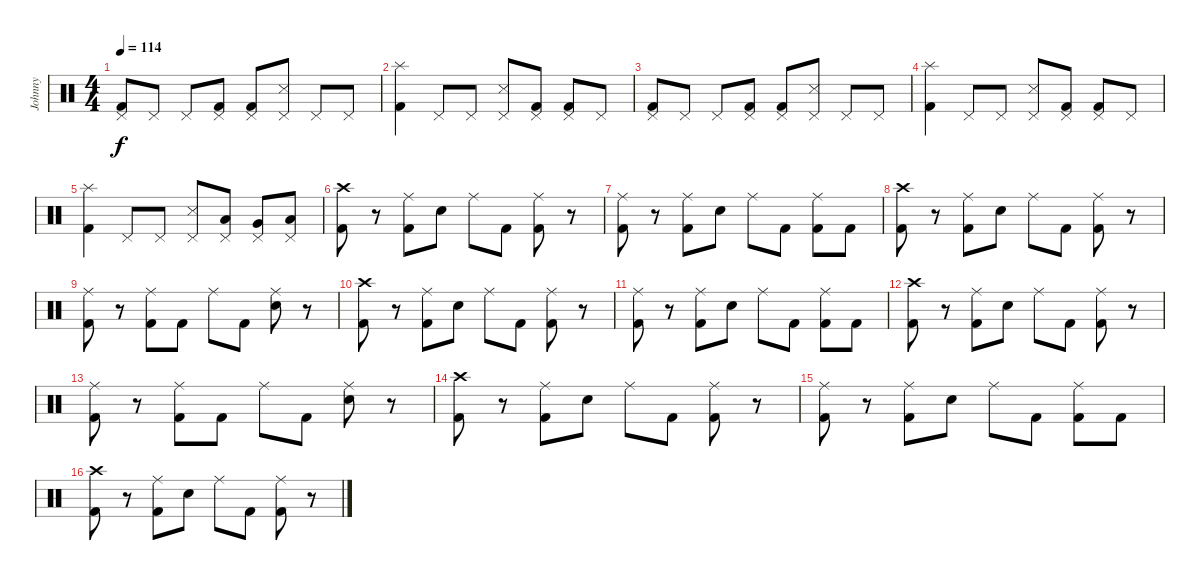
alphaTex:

\track ("Johnny" "Johnny") {instrument percussion}
\staff {score}
\articulation defaults
\ts (4 4)
\tempo 114
\clef neutral
\ks c
("Pedal Hi-Hat (hit)" "Kick (hit) 2").8{dy f} "Pedal Hi-Hat (hit)".8 "Pedal Hi-Hat (hit)".8 ("Pedal Hi-Hat (hit)" "Kick (hit) 2").8 ("Pedal Hi-Hat (hit)" "Kick (hit) 2").8 ("Pedal Hi-Hat (hit)" "Snare (side stick) 3").8 "Pedal Hi-Hat (hit)".8 "Pedal Hi-Hat (hit)".8 |
("Splash (hit)" "Kick (hit) 2").4 "Pedal Hi-Hat (hit)".8 "Pedal Hi-Hat (hit)".8 ("Pedal Hi-Hat (hit)" "Snare (side stick) 3").8 ("Pedal Hi-Hat (hit)" "Kick (hit) 2").8 ("Pedal Hi-Hat (hit)" "Kick (hit) 2").8 "Pedal Hi-Hat (hit)".8 |
("Pedal Hi-Hat (hit)" "Kick (hit) 2").8 "Pedal Hi-Hat (hit)".8 "Pedal Hi-Hat (hit)".8 ("Pedal Hi-Hat (hit)" "Kick (hit) 2").8 ("Pedal Hi-Hat (hit)" "Kick (hit) 2").8 ("Pedal Hi-Hat (hit)" "Snare (side stick) 3").8 "Pedal Hi-Hat (hit)".8 "Pedal Hi-Hat (hit)".8 |
("Splash (hit)" "Kick (hit) 2").4 "Pedal Hi-Hat (hit)".8 "Pedal Hi-Hat (hit)".8 ("Pedal Hi-Hat (hit)" "Snare (side stick) 3").8 ("Pedal Hi-Hat (hit)" "Kick (hit) 2").8 ("Pedal Hi-Hat (hit)" "Kick (hit) 2").8 "Pedal Hi-Hat (hit)".8 |
("Splash (hit)" "Kick (hit) 2").4 "Pedal Hi-Hat (hit)".8 "Pedal Hi-Hat (hit)".8 ("Pedal Hi-Hat (hit)" "Snare (side stick) 3").8 ("Pedal Hi-Hat (hit)" "Low Tom (hit)").8 ("Pedal Hi-Hat (hit)" "Very Low Tom (hit)").8 ("Pedal Hi-Hat (hit)" "Low Floor Tom (hit)").8 |
("Crash high (hit)" "Kick (hit) 2").8 r.8 ("Ride (middle)" "Kick (hit) 2").8 "Electric Snare (hit)".8 "Ride (middle)".8 "Kick (hit) 2".8 ("Ride (middle)" "Kick (hit) 2").8 r.8 |
("Ride (middle)" "Kick (hit) 2").8 r.8 ("Ride (middle)" "Kick (hit) 2").8 "Electric Snare (hit)".8 "Ride (middle)".8 "Kick (hit) 2".8 ("Ride (middle)" "Kick (hit) 2").8 "Kick (hit) 2".8 |
("Crash high (hit)" "Kick (hit) 2").8 r.8 ("Ride (middle)" "Kick (hit) 2").8 "Electric Snare (hit)".8 "Ride (middle)".8 "Kick (hit) 2".8 ("Ride (middle)" "Kick (hit) 2").8 r.8 |
("Ride (middle)" "Kick (hit) 2").8 r.8 ("Ride (middle)" "Kick (hit) 2").8 "Kick (hit) 2".8 "Ride (middle)".8 "Kick (hit) 2".8 ("Ride (middle)" "Electric Snare (hit)").8 r.8 |
("Crash high (hit)" "Kick (hit) 2").8 r.8 ("Ride (middle)" "Kick (hit) 2").8 "Electric Snare (hit)".8 "Ride (middle)".8 "Kick (hit) 2".8 ("Ride (middle)" "Kick (hit) 2").8 r.8 |
("Ride (middle)" "Kick (hit) 2").8 r.8 ("Ride (middle)" "Kick (hit) 2").8 "Electric Snare (hit)".8 "Ride (middle)".8 "Kick (hit) 2".8 ("Ride (middle)" "Kick (hit) 2").8 "Kick (hit) 2".8 |
("Crash high (hit)" "Kick (hit) 2").8 r.8 ("Ride (middle)" "Kick (hit) 2").8 "Electric Snare (hit)".8 "Ride (middle)".8 "Kick (hit) 2".8 ("Ride (middle)" "Kick (hit) 2").8 r.8 |
("Ride (middle)" "Kick (hit) 2").8 r.8 ("Ride (middle)" "Kick (hit) 2").8 "Kick (hit) 2".8 "Ride (middle)".8 "Kick (hit) 2".8 ("Ride (middle)" "Electric Snare (hit)").8 r.8 |
("Crash high (hit)" "Kick (hit) 2").8 r.8 ("Ride (middle)" "Kick (hit) 2").8 "Electric Snare (hit)".8 "Ride (middle)".8 "Kick (hit) 2".8 ("Ride (middle)" "Kick (hit) 2").8 r.8 |
("Ride (middle)" "Kick (hit) 2").8 r.8 ("Ride (middle)" "Kick (hit) 2").8 "Electric Snare (hit)".8 "Ride (middle)".8 "Kick (hit) 2".8 ("Ride (middle)" "Kick (hit) 2").8 "Kick (hit) 2".8 |
("Crash high (hit)" "Kick (hit) 2").8 r.8 ("Ride (middle)" "Kick (hit) 2").8 "Electric Snare (hit)".8 "Ride (middle)".8 "Kick (hit) 2".8 ("Ride (middle)" "Kick (hit) 2").8 r.8
